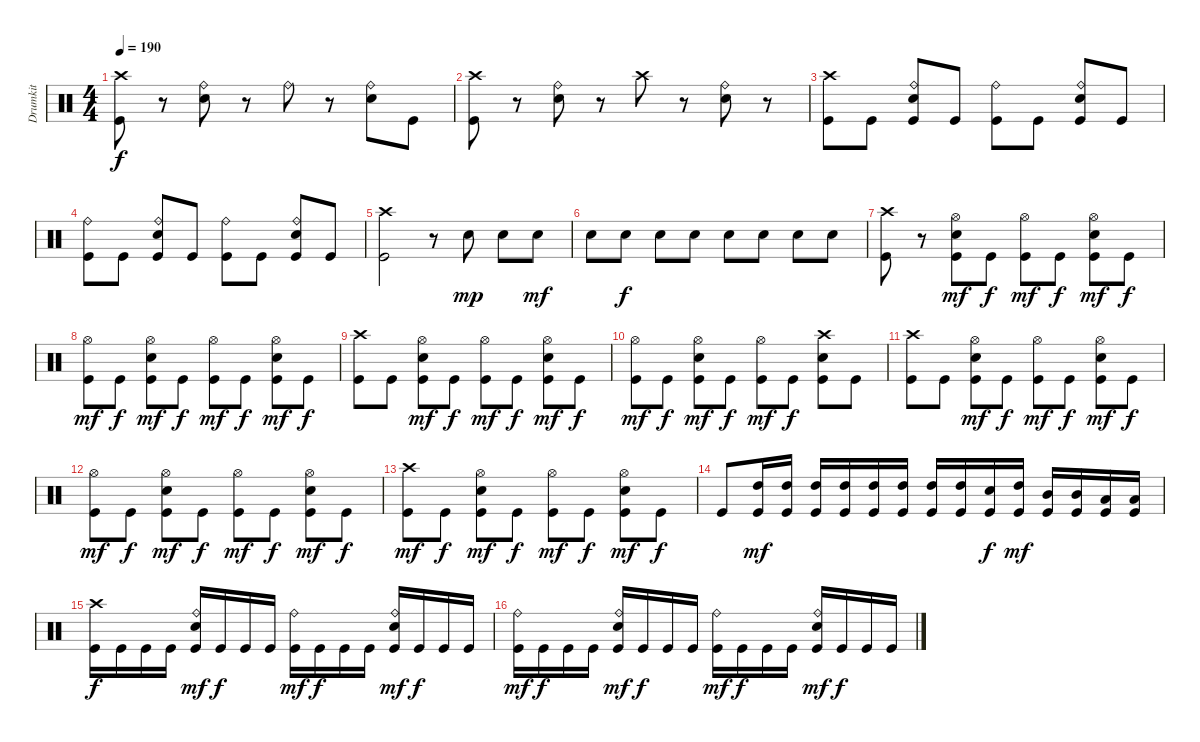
\track ("Drumkit" "Drumkit") {instrument percussion}
\staff {score}
\articulation defaults
\ts (4 4)
\tempo 190
\clef neutral
\ks c
("Crash high (hit)" "Kick (hit)").8{dy f} r.8 ("Ride (bell)" "Snare (hit) 2").8 r.8 "Ride (bell)".8 r.8 ("Ride (bell)" "Snare (hit) 2").8 "Kick (hit)".8 |
("Crash high (hit)" "Kick (hit)").8 r.8 ("Ride (bell)" "Snare (hit) 2").8 r.8 "Crash high (hit)".8 r.8 ("Ride (bell)" "Snare (hit) 2").8 r.8 |
("Crash high (hit)" "Kick (hit)").8 "Kick (hit)".8 ("Ride (bell)" "Snare (hit) 2" "Kick (hit)").8 "Kick (hit)".8 ("Ride (bell)" "Kick (hit)").8 "Kick (hit)".8 ("Ride (bell)" "Snare (hit) 2" "Kick (hit)").8 "Kick (hit)".8 |
("Ride (bell)" "Kick (hit)").8 "Kick (hit)".8 ("Ride (bell)" "Snare (hit) 2" "Kick (hit)").8 "Kick (hit)".8 ("Ride (bell)" "Kick (hit)").8 "Kick (hit)".8 ("Ride (bell)" "Snare (hit) 2" "Kick (hit)").8 "Kick (hit)".8 |
("Crash high (hit)" "Kick (hit)").2 r.8 "Snare (hit) 2".8{dy mp} "Snare (hit) 2".8 "Snare (hit) 2".8{dy mf} |
"Snare (hit) 2".8 "Snare (hit) 2".8{dy f} "Snare (hit) 2".8 "Snare (hit) 2".8 "Snare (hit) 2".8 "Snare (hit) 2".8 "Snare (hit) 2".8 "Snare (hit) 2".8 |
("Crash high (hit)" "Kick (hit)").8 r.8 ("Hi-Hat (open)" "Snare (hit) 2" "Kick (hit)").8{dy mf} "Kick (hit)".8{dy f} ("Hi-Hat (open)" "Kick (hit)").8{dy mf} "Kick (hit)".8{dy f} ("Hi-Hat (open)" "Snare (hit) 2" "Kick (hit)").8{dy mf} "Kick (hit)".8{dy f} |
("Hi-Hat (open)" "Kick (hit)").8{dy mf} "Kick (hit)".8{dy f} ("Hi-Hat (open)" "Snare (hit) 2" "Kick (hit)").8{dy mf} "Kick (hit)".8{dy f} ("Hi-Hat (open)" "Kick (hit)").8{dy mf} "Kick (hit)".8{dy f} ("Hi-Hat (open)" "Snare (hit) 2" "Kick (hit)").8{dy mf} "Kick (hit)".8{dy f} |
("Crash high (hit)" "Kick (hit)").8 "Kick (hit)".8 ("Hi-Hat (open)" "Snare (hit) 2" "Kick (hit)").8{dy mf} "Kick (hit)".8{dy f} ("Hi-Hat (open)" "Kick (hit)").8{dy mf} "Kick (hit)".8{dy f} ("Hi-Hat (open)" "Snare (hit) 2" "Kick (hit)").8{dy mf} "Kick (hit)".8{dy f} |
("Hi-Hat (open)" "Kick (hit)").8{dy mf} "Kick (hit)".8{dy f} ("Hi-Hat (open)" "Snare (hit) 2" "Kick (hit)").8{dy mf} "Kick (hit)".8{dy f} ("Hi-Hat (open)" "Kick (hit)").8{dy mf} "Kick (hit)".8{dy f} ("Crash high (hit)" "Snare (hit) 2" "Kick (hit)").8 "Kick (hit)".8 |
("Crash high (hit)" "Kick (hit)").8 "Kick (hit)".8 ("Hi-Hat (open)" "Snare (hit) 2" "Kick (hit)").8{dy mf} "Kick (hit)".8{dy f} ("Hi-Hat (open)" "Kick (hit)").8{dy mf} "Kick (hit)".8{dy f} ("Hi-Hat (open)" "Snare (hit) 2" "Kick (hit)").8{dy mf} "Kick (hit)".8{dy f} |
("Hi-Hat (open)" "Kick (hit)").8{dy mf} "Kick (hit)".8{dy f} ("Hi-Hat (open)" "Snare (hit) 2" "Kick (hit)").8{dy mf} "Kick (hit)".8{dy f} ("Hi-Hat (open)" "Kick (hit)").8{dy mf} "Kick (hit)".8{dy f} ("Hi-Hat (open)" "Snare (hit) 2" "Kick (hit)").8{dy mf} "Kick (hit)".8{dy f} |
("Crash high (hit)" "Kick (hit)").8{dy mf} "Kick (hit)".8{dy f} ("Hi-Hat (open)" "Snare (hit) 2" "Kick (hit)").8{dy mf} "Kick (hit)".8{dy f} ("Hi-Hat (open)" "Kick (hit)").8{dy mf} "Kick (hit)".8{dy f} ("Hi-Hat (open)" "Snare (hit) 2" "Kick (hit)").8{dy mf} "Kick (hit)".8{dy f} |
"Kick (hit)".8 ("High Tom (hit)" "Kick (hit)").16{dy mf} ("High Tom (hit)" "Kick (hit)").16 ("High Tom (hit)" "Kick (hit)").16 ("High Tom (hit)" "Kick (hit)").16 ("High Tom (hit)" "Kick (hit)").16 ("High Tom (hit)" "Kick (hit)").16 ("High Tom (hit)" "Kick (hit)").16 ("High Tom (hit)" "Kick (hit)").16 ("Snare (hit) 2" "Kick (hit)").16{dy f} ("High Tom (hit)" "Kick (hit)").16{dy mf} ("Mid Tom (hit)" "Kick (hit)").16 ("Mid Tom (hit)" "Kick (hit)").16 ("Low Tom (hit)" "Kick (hit)").16 ("Low Tom (hit)" "Kick (hit)").16 |
("Crash high (hit)" "Kick (hit)").16{dy f} "Kick (hit)".16 "Kick (hit)".16 "Kick (hit)".16 ("Ride (bell)" "Snare (hit) 2" "Kick (hit)").16{dy mf} "Kick (hit)".16{dy f} "Kick (hit)".16 "Kick (hit)".16 ("Ride (bell)" "Kick (hit)").16{dy mf} "Kick (hit)".16{dy f} "Kick (hit)".16 "Kick (hit)".16 ("Ride (bell)" "Snare (hit) 2" "Kick (hit)").16{dy mf} "Kick (hit)".16{dy f} "Kick (hit)".16 "Kick (hit)".16 |
("Ride (bell)" "Kick (hit)").16{dy mf} "Kick (hit)".16{dy f} "Kick (hit)".16 "Kick (hit)".16 ("Ride (bell)" "Snare (hit) 2" "Kick (hit)").16{dy mf} "Kick (hit)".16{dy f} "Kick (hit)".16 "Kick (hit)".16 ("Ride (bell)" "Kick (hit)").16{dy mf} "Kick (hit)".16{dy f} "Kick (hit)".16 "Kick (hit)".16 ("Ride (bell)" "Snare (hit) 2" "Kick (hit)").16{dy mf} "Kick (hit)".16{dy f} "Kick (hit)".16 "Kick (hit)".16
